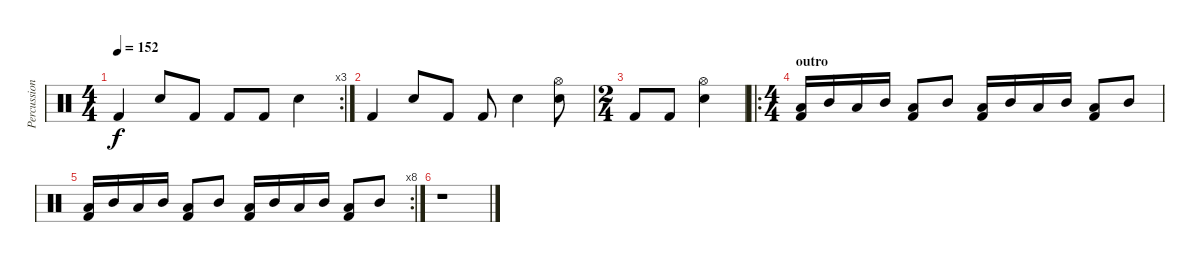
\track ("Percussion" "Percussion") {instrument percussion}
\staff {score}
\articulation defaults
\rc 3
\ts (4 4)
\tempo 152
\clef neutral
\ks c "Kick (hit) 2".4{dy f} "Electric Snare (hit)".8 "Kick (hit) 2".8 "Kick (hit) 2".8 "Kick (hit) 2".8 "Electric Snare (hit)".4
|
"Kick (hit) 2".4 "Electric Snare (hit)".8 "Kick (hit) 2".8 "Kick (hit) 2".8 "Electric Snare (hit)".4 ("Hi-Hat (open)" "Electric Snare (hit)").8 |
\ts (2 4)
"Kick (hit) 2".8 "Kick (hit) 2".8 ("Hi-Hat (open)" "Electric Snare (hit)").4 |
\ro
\ts (4 4)
\section ("" "outro")
("Low Tom (hit)" "Kick (hit) 2").16 "Mid Tom (hit)".16 "Low Tom (hit)".16 "Mid Tom (hit)".16 ("Low Tom (hit)" "Kick (hit) 2").8 "Mid Tom (hit)".8 ("Low Tom (hit)" "Kick (hit) 2").16 "Mid Tom (hit)".16 "Low Tom (hit)".16 "Mid Tom (hit)".16 ("Low Tom (hit)" "Kick (hit) 2").8 "Mid Tom (hit)".8 |
\rc 8
("Low Tom (hit)" "Kick (hit) 2").16 "Mid Tom (hit)".16 "Low Tom (hit)".16 "Mid Tom (hit)".16 ("Low Tom (hit)" "Kick (hit) 2").8 "Mid Tom (hit)".8 ("Low Tom (hit)" "Kick (hit) 2").16 "Mid Tom (hit)".16 "Low Tom (hit)".16 "Mid Tom (hit)".16 ("Low Tom (hit)" "Kick (hit) 2").8 "Mid Tom (hit)".8 |
r.1
